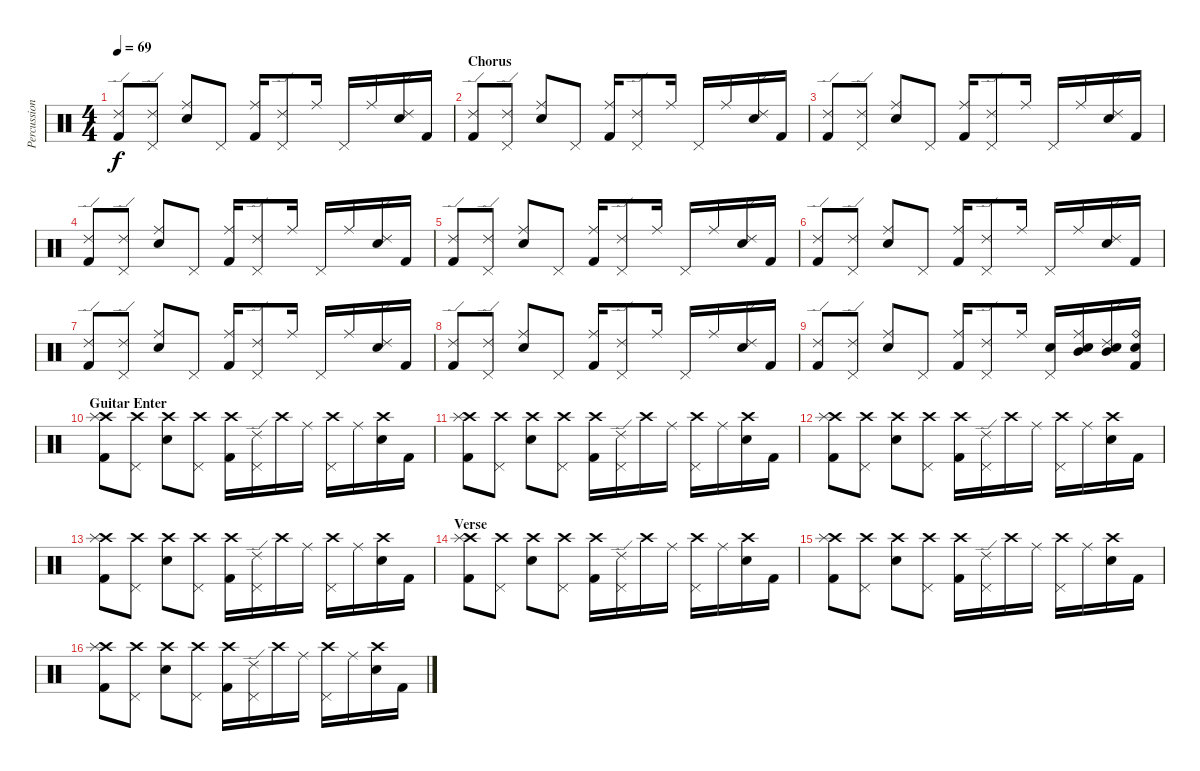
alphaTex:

\track ("Percussion" "Percussion") {instrument percussion}
\staff {score}
\articulation defaults
\ts (4 4)
\tempo 69
\clef neutral
\ks c
("Ride (edge) 2" "Kick (hit) 2").8{dy f} ("Ride (edge) 2" "Pedal Hi-Hat (hit)").8 ("Ride (middle)" "Electric Snare (hit)").8 "Pedal Hi-Hat (hit)".8 ("Ride (middle)" "Kick (hit) 2").16 ("Ride (edge) 2" "Pedal Hi-Hat (hit)").8 "Ride (middle)".16 "Pedal Hi-Hat (hit)".16 "Ride (middle)".16 ("Ride (edge) 2" "Electric Snare (hit)").16 "Kick (hit) 2".16 |
\section ("" "Chorus")
("Ride (edge) 2" "Kick (hit) 2").8 ("Ride (edge) 2" "Pedal Hi-Hat (hit)").8 ("Ride (middle)" "Electric Snare (hit)").8 "Pedal Hi-Hat (hit)".8 ("Ride (middle)" "Kick (hit) 2").16 ("Ride (edge) 2" "Pedal Hi-Hat (hit)").8 "Ride (middle)".16 "Pedal Hi-Hat (hit)".16 "Ride (middle)".16 ("Ride (edge) 2" "Electric Snare (hit)").16 "Kick (hit) 2".16 |
("Ride (edge) 2" "Kick (hit) 2").8 ("Ride (edge) 2" "Pedal Hi-Hat (hit)").8 ("Ride (middle)" "Electric Snare (hit)").8 "Pedal Hi-Hat (hit)".8 ("Ride (middle)" "Kick (hit) 2").16 ("Ride (edge) 2" "Pedal Hi-Hat (hit)").8 "Ride (middle)".16 "Pedal Hi-Hat (hit)".16 "Ride (middle)".16 ("Ride (edge) 2" "Electric Snare (hit)").16 "Kick (hit) 2".16 |
("Ride (edge) 2" "Kick (hit) 2").8 ("Ride (edge) 2" "Pedal Hi-Hat (hit)").8 ("Ride (middle)" "Electric Snare (hit)").8 "Pedal Hi-Hat (hit)".8 ("Ride (middle)" "Kick (hit) 2").16 ("Ride (edge) 2" "Pedal Hi-Hat (hit)").8 "Ride (middle)".16 "Pedal Hi-Hat (hit)".16 "Ride (middle)".16 ("Ride (edge) 2" "Electric Snare (hit)").16 "Kick (hit) 2".16 |
("Ride (edge) 2" "Kick (hit) 2").8 ("Ride (edge) 2" "Pedal Hi-Hat (hit)").8 ("Ride (middle)" "Electric Snare (hit)").8 "Pedal Hi-Hat (hit)".8 ("Ride (middle)" "Kick (hit) 2").16 ("Ride (edge) 2" "Pedal Hi-Hat (hit)").8 "Ride (middle)".16 "Pedal Hi-Hat (hit)".16 "Ride (middle)".16 ("Ride (edge) 2" "Electric Snare (hit)").16 "Kick (hit) 2".16 |
("Ride (edge) 2" "Kick (hit) 2").8 ("Ride (edge) 2" "Pedal Hi-Hat (hit)").8 ("Ride (middle)" "Electric Snare (hit)").8 "Pedal Hi-Hat (hit)".8 ("Ride (middle)" "Kick (hit) 2").16 ("Ride (edge) 2" "Pedal Hi-Hat (hit)").8 "Ride (middle)".16 "Pedal Hi-Hat (hit)".16 "Ride (middle)".16 ("Ride (edge) 2" "Electric Snare (hit)").16 "Kick (hit) 2".16 |
("Ride (edge) 2" "Kick (hit) 2").8 ("Ride (edge) 2" "Pedal Hi-Hat (hit)").8 ("Ride (middle)" "Electric Snare (hit)").8 "Pedal Hi-Hat (hit)".8 ("Ride (middle)" "Kick (hit) 2").16 ("Ride (edge) 2" "Pedal Hi-Hat (hit)").8 "Ride (middle)".16 "Pedal Hi-Hat (hit)".16 "Ride (middle)".16 ("Ride (edge) 2" "Electric Snare (hit)").16 "Kick (hit) 2".16 |
("Ride (edge) 2" "Kick (hit) 2").8 ("Ride (edge) 2" "Pedal Hi-Hat (hit)").8 ("Ride (middle)" "Electric Snare (hit)").8 "Pedal Hi-Hat (hit)".8 ("Ride (middle)" "Kick (hit) 2").16 ("Ride (edge) 2" "Pedal Hi-Hat (hit)").8 "Ride (middle)".16 "Pedal Hi-Hat (hit)".16 "Ride (middle)".16 ("Ride (edge) 2" "Electric Snare (hit)").16 "Kick (hit) 2".16 |
("Ride (edge) 2" "Kick (hit) 2").8 ("Ride (edge) 2" "Pedal Hi-Hat (hit)").8 ("Ride (middle)" "Electric Snare (hit)").8 "Pedal Hi-Hat (hit)".8 ("Ride (middle)" "Kick (hit) 2").16 ("Ride (edge) 2" "Pedal Hi-Hat (hit)").8 "Ride (middle)".16 ("Pedal Hi-Hat (hit)" "Electric Snare (hit)").16 ("Ride (middle)" "Mid Tom (hit)" "Electric Snare (hit)").16 ("Ride (edge) 2" "Mid Tom (hit)" "Electric Snare (hit)").16 ("Ride (bell)" "Electric Snare (hit)" "Kick (hit) 2").16 |
\section ("" "Guitar Enter")
("Crash high (hit)" "Splash (hit)" "Kick (hit) 2").8 ("Crash high (hit)" "Pedal Hi-Hat (hit)").8 ("Crash high (hit)" "Electric Snare (hit)").8 ("Crash high (hit)" "Pedal Hi-Hat (hit)").8 ("Crash high (hit)" "Kick (hit) 2").16 ("Ride (edge) 2" "Pedal Hi-Hat (hit)").16 "Crash high (hit)".16 "Ride (middle)".16 ("Crash high (hit)" "Pedal Hi-Hat (hit)").16 "Ride (middle)".16 ("Crash high (hit)" "Electric Snare (hit)").16 "Kick (hit) 2".16 |
("Crash high (hit)" "Splash (hit)" "Kick (hit) 2").8 ("Crash high (hit)" "Pedal Hi-Hat (hit)").8 ("Crash high (hit)" "Electric Snare (hit)").8 ("Crash high (hit)" "Pedal Hi-Hat (hit)").8 ("Crash high (hit)" "Kick (hit) 2").16 ("Ride (edge) 2" "Pedal Hi-Hat (hit)").16 "Crash high (hit)".16 "Ride (middle)".16 ("Crash high (hit)" "Pedal Hi-Hat (hit)").16 "Ride (middle)".16 ("Crash high (hit)" "Electric Snare (hit)").16 "Kick (hit) 2".16 |
("Crash high (hit)" "Splash (hit)" "Kick (hit) 2").8 ("Crash high (hit)" "Pedal Hi-Hat (hit)").8 ("Crash high (hit)" "Electric Snare (hit)").8 ("Crash high (hit)" "Pedal Hi-Hat (hit)").8 ("Crash high (hit)" "Kick (hit) 2").16 ("Ride (edge) 2" "Pedal Hi-Hat (hit)").16 "Crash high (hit)".16 "Ride (middle)".16 ("Crash high (hit)" "Pedal Hi-Hat (hit)").16 "Ride (middle)".16 ("Crash high (hit)" "Electric Snare (hit)").16 "Kick (hit) 2".16 |
("Crash high (hit)" "Splash (hit)" "Kick (hit) 2").8 ("Crash high (hit)" "Pedal Hi-Hat (hit)").8 ("Crash high (hit)" "Electric Snare (hit)").8 ("Crash high (hit)" "Pedal Hi-Hat (hit)").8 ("Crash high (hit)" "Kick (hit) 2").16 ("Ride (edge) 2" "Pedal Hi-Hat (hit)").16 "Crash high (hit)".16 "Ride (middle)".16 ("Crash high (hit)" "Pedal Hi-Hat (hit)").16 "Ride (middle)".16 ("Crash high (hit)" "Electric Snare (hit)").16 "Kick (hit) 2".16 |
\section ("" "Verse")
("Crash high (hit)" "Splash (hit)" "Kick (hit) 2").8 ("Crash high (hit)" "Pedal Hi-Hat (hit)").8 ("Crash high (hit)" "Electric Snare (hit)").8 ("Crash high (hit)" "Pedal Hi-Hat (hit)").8 ("Crash high (hit)" "Kick (hit) 2").16 ("Ride (edge) 2" "Pedal Hi-Hat (hit)").16 "Crash high (hit)".16 "Ride (middle)".16 ("Crash high (hit)" "Pedal Hi-Hat (hit)").16 "Ride (middle)".16 ("Crash high (hit)" "Electric Snare (hit)").16 "Kick (hit) 2".16 |
("Crash high (hit)" "Splash (hit)" "Kick (hit) 2").8 ("Crash high (hit)" "Pedal Hi-Hat (hit)").8 ("Crash high (hit)" "Electric Snare (hit)").8 ("Crash high (hit)" "Pedal Hi-Hat (hit)").8 ("Crash high (hit)" "Kick (hit) 2").16 ("Ride (edge) 2" "Pedal Hi-Hat (hit)").16 "Crash high (hit)".16 "Ride (middle)".16 ("Crash high (hit)" "Pedal Hi-Hat (hit)").16 "Ride (middle)".16 ("Crash high (hit)" "Electric Snare (hit)").16 "Kick (hit) 2".16 |
("Crash high (hit)" "Splash (hit)" "Kick (hit) 2").8 ("Crash high (hit)" "Pedal Hi-Hat (hit)").8 ("Crash high (hit)" "Electric Snare (hit)").8 ("Crash high (hit)" "Pedal Hi-Hat (hit)").8 ("Crash high (hit)" "Kick (hit) 2").16 ("Ride (edge) 2" "Pedal Hi-Hat (hit)").16 "Crash high (hit)".16 "Ride (middle)".16 ("Crash high (hit)" "Pedal Hi-Hat (hit)").16 "Ride (middle)".16 ("Crash high (hit)" "Electric Snare (hit)").16 "Kick (hit) 2".16
